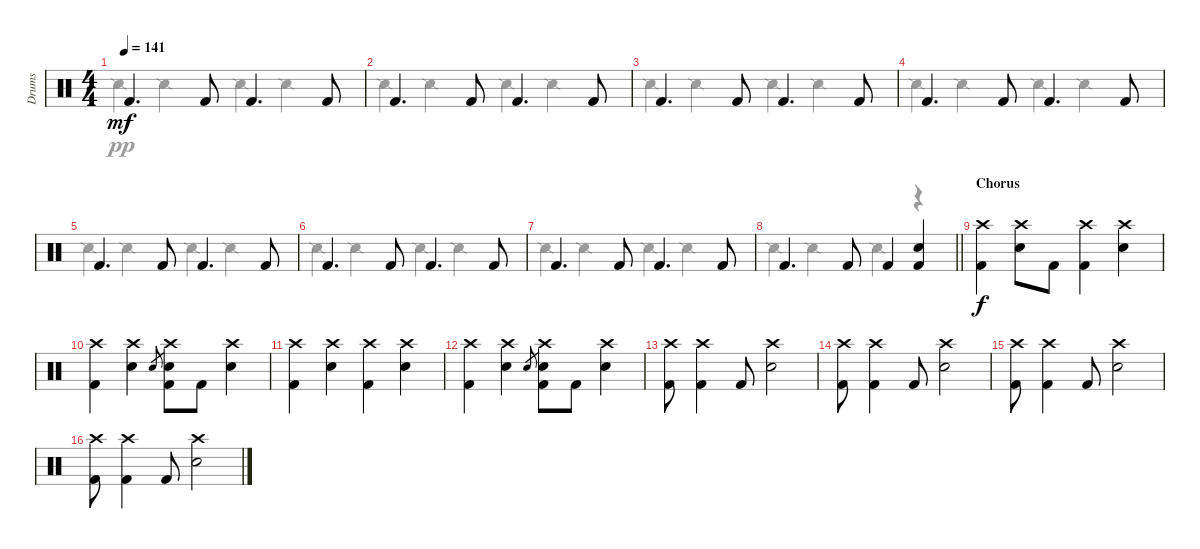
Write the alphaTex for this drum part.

\track ("Drums" "Drums") {instrument percussion}
\staff {score}
\articulation defaults
\voice
\ts (4 4)
\tempo 141
\clef neutral
\ks c "Kick (hit) 2".4{d dy mf} "Kick (hit) 2".8 "Kick (hit) 2".4{d} "Kick (hit) 2".8
|
"Kick (hit) 2".4{d} "Kick (hit) 2".8 "Kick (hit) 2".4{d} "Kick (hit) 2".8 |
"Kick (hit) 2".4{d} "Kick (hit) 2".8 "Kick (hit) 2".4{d} "Kick (hit) 2".8 |
"Kick (hit) 2".4{d} "Kick (hit) 2".8 "Kick (hit) 2".4{d} "Kick (hit) 2".8 |
"Kick (hit) 2".4{d} "Kick (hit) 2".8 "Kick (hit) 2".4{d} "Kick (hit) 2".8 |
"Kick (hit) 2".4{d} "Kick (hit) 2".8 "Kick (hit) 2".4{d} "Kick (hit) 2".8 |
"Kick (hit) 2".4{d} "Kick (hit) 2".8 "Kick (hit) 2".4{d} "Kick (hit) 2".8 |
\barLineRight lightlight "Kick (hit) 2".4{d} "Kick (hit) 2".8 "Kick (hit) 2".4
("Kick (hit) 2" "Electric Snare (hit)").4 |
\section ("" "Chorus")
("Kick (hit) 2" "Crash high (hit)").4{dy f} ("Electric Snare (hit)" "Crash high (hit)").8 "Kick (hit) 2".8 ("Kick (hit) 2" "Crash high (hit)").4 ("Electric Snare (hit)" "Crash high (hit)").4 |
("Kick (hit) 2" "Crash high (hit)").4 ("Electric Snare (hit)" "Crash high (hit)").4 "Electric Snare (hit)".8{gr} ("Kick (hit) 2" "Electric Snare (hit)" "Crash high (hit)").8 "Kick (hit) 2".8 ("Electric Snare (hit)" "Crash high (hit)").4 |
("Kick (hit) 2" "Crash high (hit)").4 ("Electric Snare (hit)" "Crash high (hit)").4 ("Kick (hit) 2" "Crash high (hit)").4 ("Electric Snare (hit)" "Crash high (hit)").4 |
("Kick (hit) 2" "Crash high (hit)").4 ("Electric Snare (hit)" "Crash high (hit)").4 "Electric Snare (hit)".8{gr} ("Kick (hit) 2" "Electric Snare (hit)" "Crash high (hit)").8 "Kick (hit) 2".8 ("Electric Snare (hit)" "Crash high (hit)").4 |
("Kick (hit) 2" "Crash high (hit)").8 ("Kick (hit) 2" "Crash high (hit)").4 "Kick (hit) 2".8 ("Electric Snare (hit)" "Crash high (hit)").2 |
("Kick (hit) 2" "Crash high (hit)").8 ("Kick (hit) 2" "Crash high (hit)").4 "Kick (hit) 2".8 ("Electric Snare (hit)" "Crash high (hit)").2 |
("Kick (hit) 2" "Crash high (hit)").8 ("Kick (hit) 2" "Crash high (hit)").4 "Kick (hit) 2".8 ("Electric Snare (hit)" "Crash high (hit)").2 |
("Kick (hit) 2" "Crash high (hit)").8 ("Kick (hit) 2" "Crash high (hit)").4 "Kick (hit) 2".8 ("Electric Snare (hit)" "Crash high (hit)").2
\voice
\clef neutral
\ottava regular
\simile none
\ks c "Snare (side stick) 2".4{dy pp} "Snare (side stick) 2".4 "Snare (side stick) 2".4 "Snare (side stick) 2".4
|
"Snare (side stick) 2".4 "Snare (side stick) 2".4 "Snare (side stick) 2".4 "Snare (side stick) 2".4 |
"Snare (side stick) 2".4 "Snare (side stick) 2".4 "Snare (side stick) 2".4 "Snare (side stick) 2".4 |
"Snare (side stick) 2".4 "Snare (side stick) 2".4 "Snare (side stick) 2".4 "Snare (side stick) 2".4 |
"Snare (side stick) 2".4 "Snare (side stick) 2".4 "Snare (side stick) 2".4 "Snare (side stick) 2".4 |
"Snare (side stick) 2".4 "Snare (side stick) 2".4 "Snare (side stick) 2".4 "Snare (side stick) 2".4 |
"Snare (side stick) 2".4 "Snare (side stick) 2".4 "Snare (side stick) 2".4 "Snare (side stick) 2".4 |
\barLineRight lightlight "Snare (side stick) 2".4 "Snare (side stick) 2".4 "Snare (side stick) 2".4
r.4 |
|
|
|
|
|
|
|
